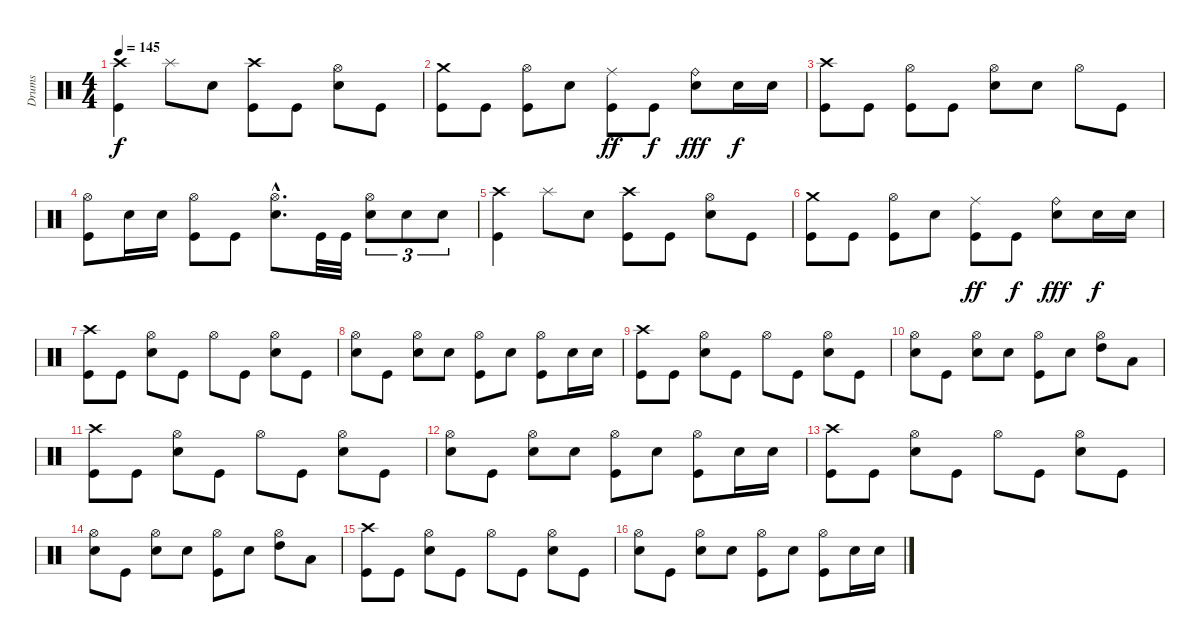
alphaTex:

\track ("Drums" "Drums") {instrument percussion}
\staff {score}
\articulation defaults
\ts (4 4)
\tempo 145
\clef neutral
\ks c
("Crash high (hit)" "Kick (hit)").4{dy f} "Splash (hit)".8 "Electric Snare (hit)".8 ("Crash high (hit)" "Kick (hit)").8 "Kick (hit)".8 ("Hi-Hat (open)" "Electric Snare (hit)").8 "Kick (hit)".8 |
("Crash medium (hit)" "Kick (hit)").8 "Kick (hit)".8 ("Hi-Hat (open)" "Kick (hit)").8 "Electric Snare (hit)".8 ("Ride (middle)" "Kick (hit)").8{dy ff} "Kick (hit)".8{dy f} ("Ride (bell)" "Electric Snare (hit)").8{dy fff} "Electric Snare (hit)".16{dy f} "Electric Snare (hit)".16 |
("Crash high (hit)" "Kick (hit)").8 "Kick (hit)".8 ("Hi-Hat (open)" "Kick (hit)").8 "Kick (hit)".8 ("Hi-Hat (open)" "Electric Snare (hit)").8 "Electric Snare (hit)".8 "Hi-Hat (open)".8 "Kick (hit)".8 |
("Hi-Hat (open)" "Kick (hit)").8 "Electric Snare (hit)".16 "Electric Snare (hit)".16 ("Hi-Hat (open)" "Kick (hit)").8 "Kick (hit)".8 ("Hi-Hat (open)"{hac} "Electric Snare (hit)"{hac}).8{d} "Kick (hit)".32 "Kick (hit)".32 ("Hi-Hat (open)" "Electric Snare (hit)").8{tu (3 2)} "Electric Snare (hit)".8{tu (3 2)} "Electric Snare (hit)".8{tu (3 2)} |
("Crash high (hit)" "Kick (hit)").4 "Splash (hit)".8 "Electric Snare (hit)".8 ("Crash high (hit)" "Kick (hit)").8 "Kick (hit)".8 ("Hi-Hat (open)" "Electric Snare (hit)").8 "Kick (hit)".8 |
("Crash medium (hit)" "Kick (hit)").8 "Kick (hit)".8 ("Hi-Hat (open)" "Kick (hit)").8 "Electric Snare (hit)".8 ("Ride (middle)" "Kick (hit)").8{dy ff} "Kick (hit)".8{dy f} ("Ride (bell)" "Electric Snare (hit)").8{dy fff} "Electric Snare (hit)".16{dy f} "Electric Snare (hit)".16 |
("Crash high (hit)" "Kick (hit)").8 "Kick (hit)".8 ("Hi-Hat (open)" "Electric Snare (hit)").8 "Kick (hit)".8 "Hi-Hat (open)".8 "Kick (hit)".8 ("Hi-Hat (open)" "Electric Snare (hit)").8 "Kick (hit)".8 |
("Hi-Hat (open)" "Electric Snare (hit)").8 "Kick (hit)".8 ("Hi-Hat (open)" "Electric Snare (hit)").8 "Electric Snare (hit)".8 ("Hi-Hat (open)" "Kick (hit)").8 "Electric Snare (hit)".8 ("Hi-Hat (open)" "Kick (hit)").8 "Electric Snare (hit)".16 "Electric Snare (hit)".16 |
("Crash high (hit)" "Kick (hit)").8 "Kick (hit)".8 ("Hi-Hat (open)" "Electric Snare (hit)").8 "Kick (hit)".8 "Hi-Hat (open)".8 "Kick (hit)".8 ("Hi-Hat (open)" "Electric Snare (hit)").8 "Kick (hit)".8 |
("Hi-Hat (open)" "Electric Snare (hit)").8 "Kick (hit)".8 ("Hi-Hat (open)" "Electric Snare (hit)").8 "Electric Snare (hit)".8 ("Hi-Hat (open)" "Kick (hit)").8 "Electric Snare (hit)".8 ("Hi-Hat (open)" "High Tom (hit)").8 "Low Tom (hit)".8 |
("Crash high (hit)" "Kick (hit)").8 "Kick (hit)".8 ("Hi-Hat (open)" "Electric Snare (hit)").8 "Kick (hit)".8 "Hi-Hat (open)".8 "Kick (hit)".8 ("Hi-Hat (open)" "Electric Snare (hit)").8 "Kick (hit)".8 |
("Hi-Hat (open)" "Electric Snare (hit)").8 "Kick (hit)".8 ("Hi-Hat (open)" "Electric Snare (hit)").8 "Electric Snare (hit)".8 ("Hi-Hat (open)" "Kick (hit)").8 "Electric Snare (hit)".8 ("Hi-Hat (open)" "Kick (hit)").8 "Electric Snare (hit)".16 "Electric Snare (hit)".16 |
("Crash high (hit)" "Kick (hit)").8 "Kick (hit)".8 ("Hi-Hat (open)" "Electric Snare (hit)").8 "Kick (hit)".8 "Hi-Hat (open)".8 "Kick (hit)".8 ("Hi-Hat (open)" "Electric Snare (hit)").8 "Kick (hit)".8 |
("Hi-Hat (open)" "Electric Snare (hit)").8 "Kick (hit)".8 ("Hi-Hat (open)" "Electric Snare (hit)").8 "Electric Snare (hit)".8 ("Hi-Hat (open)" "Kick (hit)").8 "Electric Snare (hit)".8 ("Hi-Hat (open)" "High Tom (hit)").8 "Low Tom (hit)".8 |
("Crash high (hit)" "Kick (hit)").8 "Kick (hit)".8 ("Hi-Hat (open)" "Electric Snare (hit)").8 "Kick (hit)".8 "Hi-Hat (open)".8 "Kick (hit)".8 ("Hi-Hat (open)" "Electric Snare (hit)").8 "Kick (hit)".8 |
("Hi-Hat (open)" "Electric Snare (hit)").8 "Kick (hit)".8 ("Hi-Hat (open)" "Electric Snare (hit)").8 "Electric Snare (hit)".8 ("Hi-Hat (open)" "Kick (hit)").8 "Electric Snare (hit)".8 ("Hi-Hat (open)" "Kick (hit)").8 "Electric Snare (hit)".16 "Electric Snare (hit)".16
